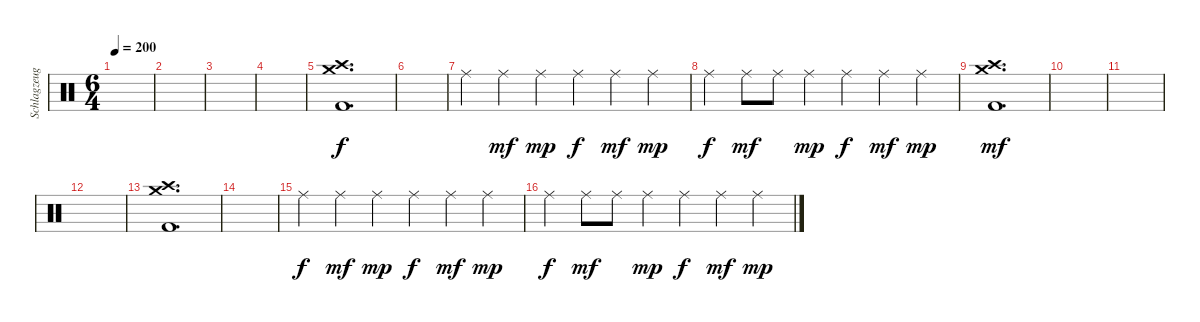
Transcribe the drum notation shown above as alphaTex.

\track ("Schlagzeug" "Schlagzeug") {instrument percussion}
\staff {score}
\articulation defaults
\ts (6 4)
\section ("" "")
\tempo 200
\clef neutral
\ks c
|
|
|
|
("Crash medium (hit)" "Crash high (hit)" "Kick (hit) 2").1{d} |
|
"Ride (middle)".4{dy f} "Ride (middle)".4{dy mf} "Ride (middle)".4{dy mp} "Ride (middle)".4{dy f} "Ride (middle)".4{dy mf} "Ride (middle)".4{dy mp} |
"Ride (middle)".4{dy f} "Ride (middle)".8{dy mf} "Ride (middle)".8 "Ride (middle)".4{dy mp} "Ride (middle)".4{dy f} "Ride (middle)".4{dy mf} "Ride (middle)".4{dy mp} |
("Crash medium (hit)" "Crash high (hit)" "Kick (hit) 2").1{d dy mf} |
|
|
|
("Crash medium (hit)" "Crash high (hit)" "Kick (hit) 2").1{d} |
|
"Ride (middle)".4{dy f} "Ride (middle)".4{dy mf} "Ride (middle)".4{dy mp} "Ride (middle)".4{dy f} "Ride (middle)".4{dy mf} "Ride (middle)".4{dy mp} |
"Ride (middle)".4{dy f} "Ride (middle)".8{dy mf} "Ride (middle)".8 "Ride (middle)".4{dy mp} "Ride (middle)".4{dy f} "Ride (middle)".4{dy mf} "Ride (middle)".4{dy mp}
